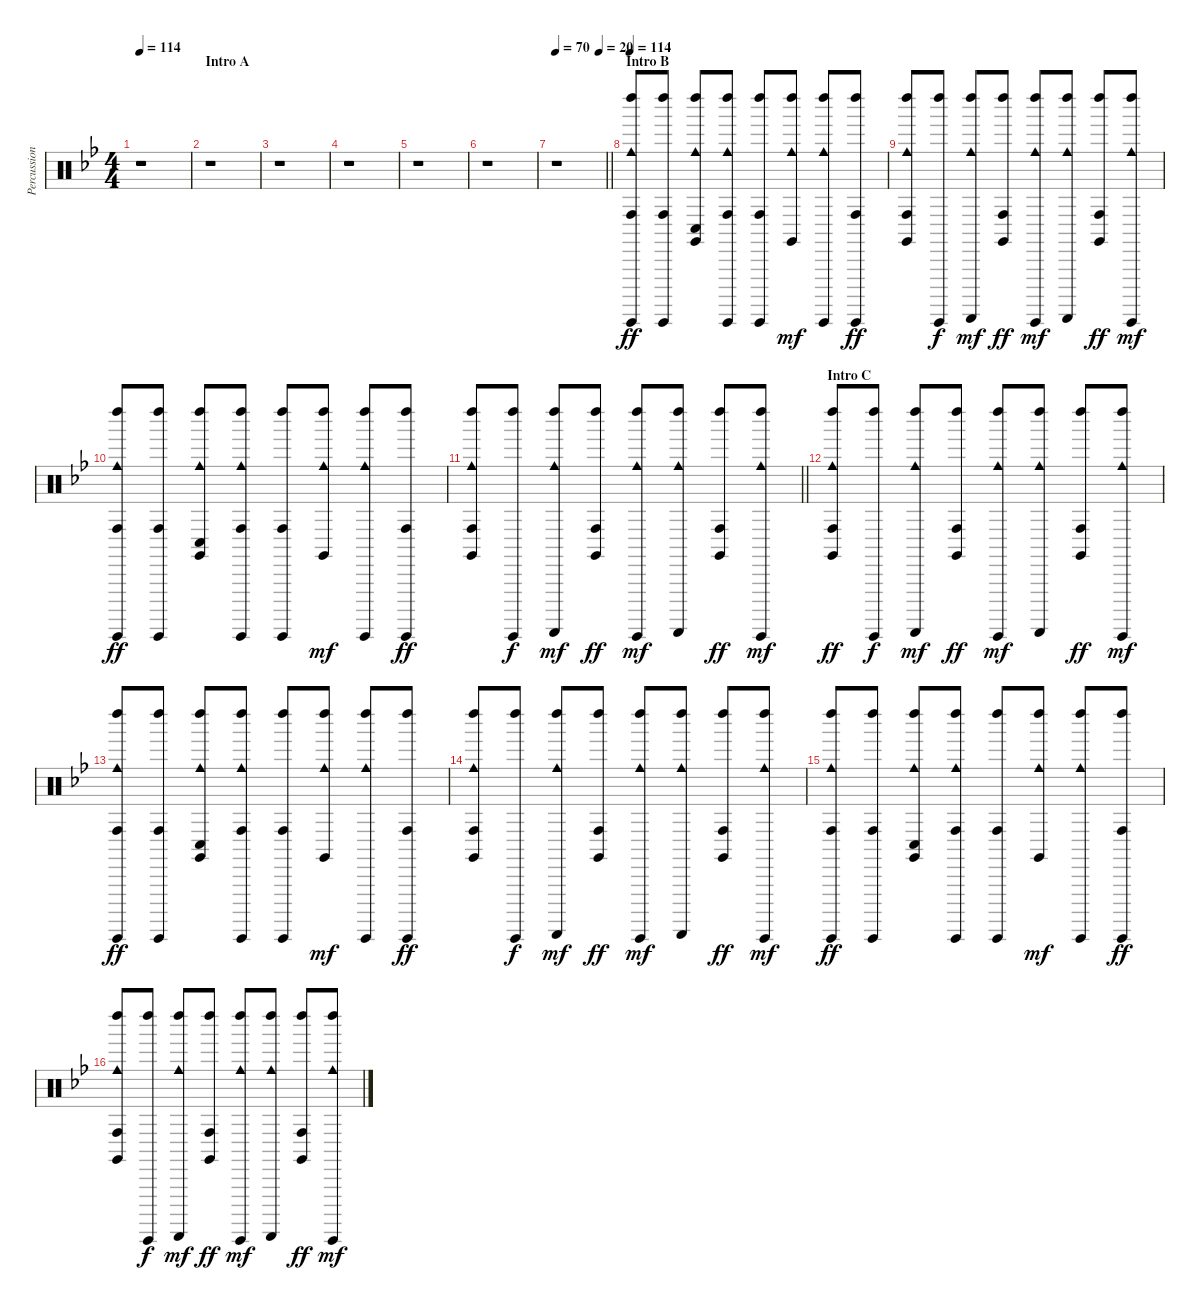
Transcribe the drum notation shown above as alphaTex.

\track ("Percussion" "Percussion") {instrument percussion}
\staff {score}
\articulation defaults
\ts (4 4)
\tempo 114
\tempo 88
\tempo 114
\clef neutral
\ks gminor
r.1{dy ff} |
\section ("" "Intro A")
r.1 |
r.1 |
r.1 |
r.1 |
r.1 |
\tempo 70
\tempo (20 0.875)
\barLineRight lightlight
r.1 |
\section ("" "Intro B")
\tempo 114
("Guiro (hit)" "Cowbell medium (hit)" "Conga high (hit)" "Left Maraca (hit)").8 ("Guiro (hit)" "Conga high (hit)" "Left Maraca (hit)").8 ("Claves (hit)" "Cowbell medium (hit)" "Conga low (hit)" "Left Maraca (hit)").8 ("Guiro (hit)" "Cowbell medium (hit)" "Conga high (hit)" "Left Maraca (hit)").8 ("Guiro (hit)" "Conga high (hit)" "Left Maraca (hit)").8 ("Claves (hit)" "Cowbell medium (hit)" "Left Maraca (hit)").8{dy mf} ("Guiro (hit)" "Cowbell medium (hit)" "Left Maraca (hit)").8 ("Guiro (hit)" "Conga high (hit)" "Left Maraca (hit)").8{dy ff} |
("Claves (hit)" "Cowbell medium (hit)" "Conga high (hit)" "Left Maraca (hit)").8 ("Guiro (hit)" "Left Maraca (hit)").8{dy f} ("Guiro (scrap-return)" "Cowbell medium (hit)" "Left Maraca (hit)").8{dy mf} ("Claves (hit)" "Conga high (hit)" "Left Maraca (hit)").8{dy ff} ("Guiro (hit)" "Cowbell medium (hit)" "Left Maraca (hit)").8{dy mf} ("Guiro (scrap-return)" "Cowbell medium (hit)" "Left Maraca (hit)").8 ("Claves (hit)" "Conga high (hit)" "Left Maraca (hit)").8{dy ff} ("Guiro (hit)" "Cowbell medium (hit)" "Left Maraca (hit)").8{dy mf} |
("Guiro (hit)" "Cowbell medium (hit)" "Conga high (hit)" "Left Maraca (hit)").8{dy ff} ("Guiro (hit)" "Conga high (hit)" "Left Maraca (hit)").8 ("Claves (hit)" "Cowbell medium (hit)" "Conga low (hit)" "Left Maraca (hit)").8 ("Guiro (hit)" "Cowbell medium (hit)" "Conga high (hit)" "Left Maraca (hit)").8 ("Guiro (hit)" "Conga high (hit)" "Left Maraca (hit)").8 ("Claves (hit)" "Cowbell medium (hit)" "Left Maraca (hit)").8{dy mf} ("Guiro (hit)" "Cowbell medium (hit)" "Left Maraca (hit)").8 ("Guiro (hit)" "Conga high (hit)" "Left Maraca (hit)").8{dy ff} |
\barLineRight lightlight
("Claves (hit)" "Cowbell medium (hit)" "Conga high (hit)" "Left Maraca (hit)").8 ("Guiro (hit)" "Left Maraca (hit)").8{dy f} ("Guiro (scrap-return)" "Cowbell medium (hit)" "Left Maraca (hit)").8{dy mf} ("Claves (hit)" "Conga high (hit)" "Left Maraca (hit)").8{dy ff} ("Guiro (hit)" "Cowbell medium (hit)" "Left Maraca (hit)").8{dy mf} ("Guiro (scrap-return)" "Cowbell medium (hit)" "Left Maraca (hit)").8 ("Claves (hit)" "Conga high (hit)" "Left Maraca (hit)").8{dy ff} ("Guiro (hit)" "Cowbell medium (hit)" "Left Maraca (hit)").8{dy mf} |
\section ("" "Intro C")
("Claves (hit)" "Cowbell medium (hit)" "Conga high (hit)" "Left Maraca (hit)").8{dy ff} ("Guiro (hit)" "Left Maraca (hit)").8{dy f} ("Guiro (scrap-return)" "Cowbell medium (hit)" "Left Maraca (hit)").8{dy mf} ("Claves (hit)" "Conga high (hit)" "Left Maraca (hit)").8{dy ff} ("Guiro (hit)" "Cowbell medium (hit)" "Left Maraca (hit)").8{dy mf} ("Guiro (scrap-return)" "Cowbell medium (hit)" "Left Maraca (hit)").8 ("Claves (hit)" "Conga high (hit)" "Left Maraca (hit)").8{dy ff} ("Guiro (hit)" "Cowbell medium (hit)" "Left Maraca (hit)").8{dy mf} |
("Guiro (hit)" "Cowbell medium (hit)" "Conga high (hit)" "Left Maraca (hit)").8{dy ff} ("Guiro (hit)" "Conga high (hit)" "Left Maraca (hit)").8 ("Claves (hit)" "Cowbell medium (hit)" "Conga low (hit)" "Left Maraca (hit)").8 ("Guiro (hit)" "Cowbell medium (hit)" "Conga high (hit)" "Left Maraca (hit)").8 ("Guiro (hit)" "Conga high (hit)" "Left Maraca (hit)").8 ("Claves (hit)" "Cowbell medium (hit)" "Left Maraca (hit)").8{dy mf} ("Guiro (hit)" "Cowbell medium (hit)" "Left Maraca (hit)").8 ("Guiro (hit)" "Conga high (hit)" "Left Maraca (hit)").8{dy ff} |
("Claves (hit)" "Cowbell medium (hit)" "Conga high (hit)" "Left Maraca (hit)").8 ("Guiro (hit)" "Left Maraca (hit)").8{dy f} ("Guiro (scrap-return)" "Cowbell medium (hit)" "Left Maraca (hit)").8{dy mf} ("Claves (hit)" "Conga high (hit)" "Left Maraca (hit)").8{dy ff} ("Guiro (hit)" "Cowbell medium (hit)" "Left Maraca (hit)").8{dy mf} ("Guiro (scrap-return)" "Cowbell medium (hit)" "Left Maraca (hit)").8 ("Claves (hit)" "Conga high (hit)" "Left Maraca (hit)").8{dy ff} ("Guiro (hit)" "Cowbell medium (hit)" "Left Maraca (hit)").8{dy mf} |
("Guiro (hit)" "Cowbell medium (hit)" "Conga high (hit)" "Left Maraca (hit)").8{dy ff} ("Guiro (hit)" "Conga high (hit)" "Left Maraca (hit)").8 ("Claves (hit)" "Cowbell medium (hit)" "Conga low (hit)" "Left Maraca (hit)").8 ("Guiro (hit)" "Cowbell medium (hit)" "Conga high (hit)" "Left Maraca (hit)").8 ("Guiro (hit)" "Conga high (hit)" "Left Maraca (hit)").8 ("Claves (hit)" "Cowbell medium (hit)" "Left Maraca (hit)").8{dy mf} ("Guiro (hit)" "Cowbell medium (hit)" "Left Maraca (hit)").8 ("Guiro (hit)" "Conga high (hit)" "Left Maraca (hit)").8{dy ff} |
("Claves (hit)" "Cowbell medium (hit)" "Conga high (hit)" "Left Maraca (hit)").8 ("Guiro (hit)" "Left Maraca (hit)").8{dy f} ("Guiro (scrap-return)" "Cowbell medium (hit)" "Left Maraca (hit)").8{dy mf} ("Claves (hit)" "Conga high (hit)" "Left Maraca (hit)").8{dy ff} ("Guiro (hit)" "Cowbell medium (hit)" "Left Maraca (hit)").8{dy mf} ("Guiro (scrap-return)" "Cowbell medium (hit)" "Left Maraca (hit)").8 ("Claves (hit)" "Conga high (hit)" "Left Maraca (hit)").8{dy ff} ("Guiro (hit)" "Cowbell medium (hit)" "Left Maraca (hit)").8{dy mf}
